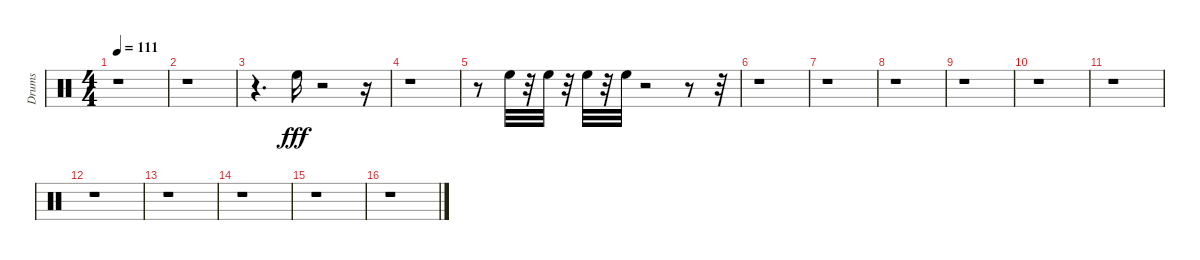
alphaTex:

\track ("Drums" "Drums") {instrument percussion}
\staff {score}
\articulation defaults
\ts (4 4)
\tempo 111
\clef neutral
\ks c
r.1{dy fff} |
r.1 |
r.4{d} "High Floor Tom (hit)".16 r.2 r.16 |
r.1 |
r.8 "High Floor Tom (hit)".32 r.32 "High Floor Tom (hit)".32 r.32 "High Floor Tom (hit)".32 r.32 "High Floor Tom (hit)".32 r.2 r.8 r.32 |
r.1 |
r.1 |
r.1 |
r.1 |
r.1 |
r.1 |
r.1 |
r.1 |
r.1 |
r.1 |
r.1
